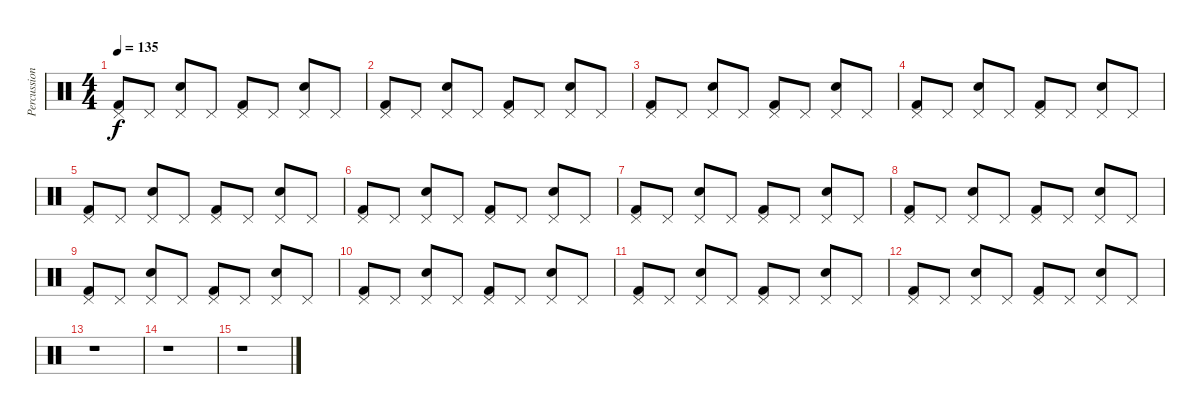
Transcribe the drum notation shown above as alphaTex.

\track ("Percussions" "Percussion") {instrument percussion}
\staff {score}
\articulation defaults
\ts (4 4)
\tempo 135
\clef neutral
\ks c
("Pedal Hi-Hat (hit)" "Kick (hit) 2").8{dy f} "Pedal Hi-Hat (hit)".8 ("Pedal Hi-Hat (hit)" "Electric Snare (hit)").8 "Pedal Hi-Hat (hit)".8 ("Pedal Hi-Hat (hit)" "Kick (hit) 2").8 "Pedal Hi-Hat (hit)".8 ("Pedal Hi-Hat (hit)" "Electric Snare (hit)").8 "Pedal Hi-Hat (hit)".8 |
("Pedal Hi-Hat (hit)" "Kick (hit) 2").8 "Pedal Hi-Hat (hit)".8 ("Pedal Hi-Hat (hit)" "Electric Snare (hit)").8 "Pedal Hi-Hat (hit)".8 ("Pedal Hi-Hat (hit)" "Kick (hit) 2").8 "Pedal Hi-Hat (hit)".8 ("Pedal Hi-Hat (hit)" "Electric Snare (hit)").8 "Pedal Hi-Hat (hit)".8 |
("Pedal Hi-Hat (hit)" "Kick (hit) 2").8 "Pedal Hi-Hat (hit)".8 ("Pedal Hi-Hat (hit)" "Electric Snare (hit)").8 "Pedal Hi-Hat (hit)".8 ("Pedal Hi-Hat (hit)" "Kick (hit) 2").8 "Pedal Hi-Hat (hit)".8 ("Pedal Hi-Hat (hit)" "Electric Snare (hit)").8 "Pedal Hi-Hat (hit)".8 |
("Pedal Hi-Hat (hit)" "Kick (hit) 2").8 "Pedal Hi-Hat (hit)".8 ("Pedal Hi-Hat (hit)" "Electric Snare (hit)").8 "Pedal Hi-Hat (hit)".8 ("Pedal Hi-Hat (hit)" "Kick (hit) 2").8 "Pedal Hi-Hat (hit)".8 ("Pedal Hi-Hat (hit)" "Electric Snare (hit)").8 "Pedal Hi-Hat (hit)".8 |
("Pedal Hi-Hat (hit)" "Kick (hit) 2").8 "Pedal Hi-Hat (hit)".8 ("Pedal Hi-Hat (hit)" "Electric Snare (hit)").8 "Pedal Hi-Hat (hit)".8 ("Pedal Hi-Hat (hit)" "Kick (hit) 2").8 "Pedal Hi-Hat (hit)".8 ("Pedal Hi-Hat (hit)" "Electric Snare (hit)").8 "Pedal Hi-Hat (hit)".8 |
("Pedal Hi-Hat (hit)" "Kick (hit) 2").8 "Pedal Hi-Hat (hit)".8 ("Pedal Hi-Hat (hit)" "Electric Snare (hit)").8 "Pedal Hi-Hat (hit)".8 ("Pedal Hi-Hat (hit)" "Kick (hit) 2").8 "Pedal Hi-Hat (hit)".8 ("Pedal Hi-Hat (hit)" "Electric Snare (hit)").8 "Pedal Hi-Hat (hit)".8 |
("Pedal Hi-Hat (hit)" "Kick (hit) 2").8 "Pedal Hi-Hat (hit)".8 ("Pedal Hi-Hat (hit)" "Electric Snare (hit)").8 "Pedal Hi-Hat (hit)".8 ("Pedal Hi-Hat (hit)" "Kick (hit) 2").8 "Pedal Hi-Hat (hit)".8 ("Pedal Hi-Hat (hit)" "Electric Snare (hit)").8 "Pedal Hi-Hat (hit)".8 |
("Pedal Hi-Hat (hit)" "Kick (hit) 2").8 "Pedal Hi-Hat (hit)".8 ("Pedal Hi-Hat (hit)" "Electric Snare (hit)").8 "Pedal Hi-Hat (hit)".8 ("Pedal Hi-Hat (hit)" "Kick (hit) 2").8 "Pedal Hi-Hat (hit)".8 ("Pedal Hi-Hat (hit)" "Electric Snare (hit)").8 "Pedal Hi-Hat (hit)".8 |
("Pedal Hi-Hat (hit)" "Kick (hit) 2").8 "Pedal Hi-Hat (hit)".8 ("Pedal Hi-Hat (hit)" "Electric Snare (hit)").8 "Pedal Hi-Hat (hit)".8 ("Pedal Hi-Hat (hit)" "Kick (hit) 2").8 "Pedal Hi-Hat (hit)".8 ("Pedal Hi-Hat (hit)" "Electric Snare (hit)").8 "Pedal Hi-Hat (hit)".8 |
("Pedal Hi-Hat (hit)" "Kick (hit) 2").8 "Pedal Hi-Hat (hit)".8 ("Pedal Hi-Hat (hit)" "Electric Snare (hit)").8 "Pedal Hi-Hat (hit)".8 ("Pedal Hi-Hat (hit)" "Kick (hit) 2").8 "Pedal Hi-Hat (hit)".8 ("Pedal Hi-Hat (hit)" "Electric Snare (hit)").8 "Pedal Hi-Hat (hit)".8 |
("Pedal Hi-Hat (hit)" "Kick (hit) 2").8 "Pedal Hi-Hat (hit)".8 ("Pedal Hi-Hat (hit)" "Electric Snare (hit)").8 "Pedal Hi-Hat (hit)".8 ("Pedal Hi-Hat (hit)" "Kick (hit) 2").8 "Pedal Hi-Hat (hit)".8 ("Pedal Hi-Hat (hit)" "Electric Snare (hit)").8 "Pedal Hi-Hat (hit)".8 |
("Pedal Hi-Hat (hit)" "Kick (hit) 2").8 "Pedal Hi-Hat (hit)".8 ("Pedal Hi-Hat (hit)" "Electric Snare (hit)").8 "Pedal Hi-Hat (hit)".8 ("Pedal Hi-Hat (hit)" "Kick (hit) 2").8 "Pedal Hi-Hat (hit)".8 ("Pedal Hi-Hat (hit)" "Electric Snare (hit)").8 "Pedal Hi-Hat (hit)".8 |
r.1 |
r.1 |
r.1
